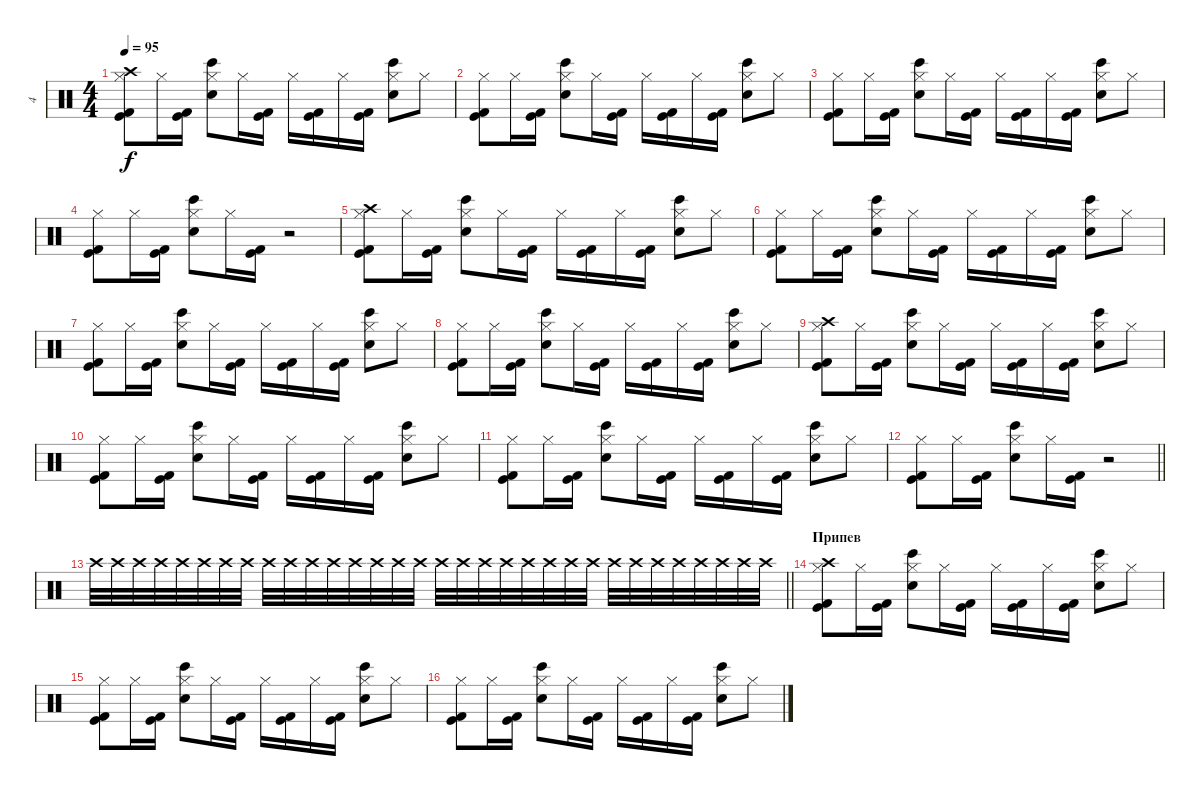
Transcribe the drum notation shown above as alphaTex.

\track ("4" "4") {instrument percussion}
\staff {score}
\articulation defaults
\ts (4 4)
\tempo 95
\clef neutral
\ks c
("Kick (hit) 2" "Kick (hit)" "Hi-Hat (closed)" "Crash high (hit)").8{dy f} "Hi-Hat (closed)".16 ("Kick (hit) 2" "Kick (hit)").16 ("Snare (hit) 2" "Hi-Hat (closed)" "Bongo High (hit)").8 "Hi-Hat (closed)".16 ("Kick (hit) 2" "Kick (hit)").16 "Hi-Hat (closed)".16 ("Kick (hit) 2" "Kick (hit)").16 "Hi-Hat (closed)".16 ("Kick (hit) 2" "Kick (hit)").16 ("Snare (hit) 2" "Hi-Hat (closed)" "Bongo High (hit)").8 "Hi-Hat (closed)".8 |
("Kick (hit) 2" "Kick (hit)" "Hi-Hat (closed)").8 "Hi-Hat (closed)".16 ("Kick (hit) 2" "Kick (hit)").16 ("Snare (hit) 2" "Hi-Hat (closed)" "Bongo High (hit)").8 "Hi-Hat (closed)".16 ("Kick (hit) 2" "Kick (hit)").16 "Hi-Hat (closed)".16 ("Kick (hit) 2" "Kick (hit)").16 "Hi-Hat (closed)".16 ("Kick (hit) 2" "Kick (hit)").16 ("Snare (hit) 2" "Hi-Hat (closed)" "Bongo High (hit)").8 "Hi-Hat (closed)".8 |
("Kick (hit) 2" "Kick (hit)" "Hi-Hat (closed)").8 "Hi-Hat (closed)".16 ("Kick (hit) 2" "Kick (hit)").16 ("Snare (hit) 2" "Hi-Hat (closed)" "Bongo High (hit)").8 "Hi-Hat (closed)".16 ("Kick (hit) 2" "Kick (hit)").16 "Hi-Hat (closed)".16 ("Kick (hit) 2" "Kick (hit)").16 "Hi-Hat (closed)".16 ("Kick (hit) 2" "Kick (hit)").16 ("Snare (hit) 2" "Hi-Hat (closed)" "Bongo High (hit)").8 "Hi-Hat (closed)".8 |
("Kick (hit) 2" "Kick (hit)" "Hi-Hat (closed)").8 "Hi-Hat (closed)".16 ("Kick (hit) 2" "Kick (hit)").16 ("Snare (hit) 2" "Hi-Hat (closed)" "Bongo High (hit)").8 "Hi-Hat (closed)".16 ("Kick (hit) 2" "Kick (hit)").16 r.2 |
("Kick (hit) 2" "Kick (hit)" "Hi-Hat (closed)" "Crash high (hit)").8 "Hi-Hat (closed)".16 ("Kick (hit) 2" "Kick (hit)").16 ("Snare (hit) 2" "Hi-Hat (closed)" "Bongo High (hit)").8 "Hi-Hat (closed)".16 ("Kick (hit) 2" "Kick (hit)").16 "Hi-Hat (closed)".16 ("Kick (hit) 2" "Kick (hit)").16 "Hi-Hat (closed)".16 ("Kick (hit) 2" "Kick (hit)").16 ("Snare (hit) 2" "Hi-Hat (closed)" "Bongo High (hit)").8 "Hi-Hat (closed)".8 |
("Kick (hit) 2" "Kick (hit)" "Hi-Hat (closed)").8 "Hi-Hat (closed)".16 ("Kick (hit) 2" "Kick (hit)").16 ("Snare (hit) 2" "Hi-Hat (closed)" "Bongo High (hit)").8 "Hi-Hat (closed)".16 ("Kick (hit) 2" "Kick (hit)").16 "Hi-Hat (closed)".16 ("Kick (hit) 2" "Kick (hit)").16 "Hi-Hat (closed)".16 ("Kick (hit) 2" "Kick (hit)").16 ("Snare (hit) 2" "Hi-Hat (closed)" "Bongo High (hit)").8 "Hi-Hat (closed)".8 |
("Kick (hit) 2" "Kick (hit)" "Hi-Hat (closed)").8 "Hi-Hat (closed)".16 ("Kick (hit) 2" "Kick (hit)").16 ("Snare (hit) 2" "Hi-Hat (closed)" "Bongo High (hit)").8 "Hi-Hat (closed)".16 ("Kick (hit) 2" "Kick (hit)").16 "Hi-Hat (closed)".16 ("Kick (hit) 2" "Kick (hit)").16 "Hi-Hat (closed)".16 ("Kick (hit) 2" "Kick (hit)").16 ("Snare (hit) 2" "Hi-Hat (closed)" "Bongo High (hit)").8 "Hi-Hat (closed)".8 |
("Kick (hit) 2" "Kick (hit)" "Hi-Hat (closed)").8 "Hi-Hat (closed)".16 ("Kick (hit) 2" "Kick (hit)").16 ("Snare (hit) 2" "Hi-Hat (closed)" "Bongo High (hit)").8 "Hi-Hat (closed)".16 ("Kick (hit) 2" "Kick (hit)").16 "Hi-Hat (closed)".16 ("Kick (hit) 2" "Kick (hit)").16 "Hi-Hat (closed)".16 ("Kick (hit) 2" "Kick (hit)").16 ("Snare (hit) 2" "Hi-Hat (closed)" "Bongo High (hit)").8 "Hi-Hat (closed)".8 |
("Kick (hit) 2" "Kick (hit)" "Hi-Hat (closed)" "Crash high (hit)").8 "Hi-Hat (closed)".16 ("Kick (hit) 2" "Kick (hit)").16 ("Snare (hit) 2" "Hi-Hat (closed)" "Bongo High (hit)").8 "Hi-Hat (closed)".16 ("Kick (hit) 2" "Kick (hit)").16 "Hi-Hat (closed)".16 ("Kick (hit) 2" "Kick (hit)").16 "Hi-Hat (closed)".16 ("Kick (hit) 2" "Kick (hit)").16 ("Snare (hit) 2" "Hi-Hat (closed)" "Bongo High (hit)").8 "Hi-Hat (closed)".8 |
("Kick (hit) 2" "Kick (hit)" "Hi-Hat (closed)").8 "Hi-Hat (closed)".16 ("Kick (hit) 2" "Kick (hit)").16 ("Snare (hit) 2" "Hi-Hat (closed)" "Bongo High (hit)").8 "Hi-Hat (closed)".16 ("Kick (hit) 2" "Kick (hit)").16 "Hi-Hat (closed)".16 ("Kick (hit) 2" "Kick (hit)").16 "Hi-Hat (closed)".16 ("Kick (hit) 2" "Kick (hit)").16 ("Snare (hit) 2" "Hi-Hat (closed)" "Bongo High (hit)").8 "Hi-Hat (closed)".8 |
("Kick (hit) 2" "Kick (hit)" "Hi-Hat (closed)").8 "Hi-Hat (closed)".16 ("Kick (hit) 2" "Kick (hit)").16 ("Snare (hit) 2" "Hi-Hat (closed)" "Bongo High (hit)").8 "Hi-Hat (closed)".16 ("Kick (hit) 2" "Kick (hit)").16 "Hi-Hat (closed)".16 ("Kick (hit) 2" "Kick (hit)").16 "Hi-Hat (closed)".16 ("Kick (hit) 2" "Kick (hit)").16 ("Snare (hit) 2" "Hi-Hat (closed)" "Bongo High (hit)").8 "Hi-Hat (closed)".8 |
\barLineRight lightlight
("Kick (hit) 2" "Kick (hit)" "Hi-Hat (closed)").8 "Hi-Hat (closed)".16 ("Kick (hit) 2" "Kick (hit)").16 ("Snare (hit) 2" "Hi-Hat (closed)" "Bongo High (hit)").8 "Hi-Hat (closed)".16 ("Kick (hit) 2" "Kick (hit)").16 r.2{volume 0} |
\barLineRight lightlight "Crash high (hit)".32{volume 14} "Crash high (hit)".32 "Crash high (hit)".32 "Crash high (hit)".32 "Crash high (hit)".32 "Crash high (hit)".32 "Crash high (hit)".32 "Crash high (hit)".32 "Crash high (hit)".32 "Crash high (hit)".32 "Crash high (hit)".32 "Crash high (hit)".32 "Crash high (hit)".32 "Crash high (hit)".32 "Crash high (hit)".32 "Crash high (hit)".32 "Crash high (hit)".32 "Crash high (hit)".32 "Crash high (hit)".32 "Crash high (hit)".32 "Crash high (hit)".32 "Crash high (hit)".32 "Crash high (hit)".32 "Crash high (hit)".32 "Crash high (hit)".32 "Crash high (hit)".32 "Crash high (hit)".32 "Crash high (hit)".32 "Crash high (hit)".32 "Crash high (hit)".32 "Crash high (hit)".32 "Crash high (hit)".32
|
\section ("" "Припев")
("Kick (hit) 2" "Kick (hit)" "Hi-Hat (closed)" "Crash high (hit)").8 "Hi-Hat (closed)".16 ("Kick (hit) 2" "Kick (hit)").16 ("Snare (hit) 2" "Hi-Hat (closed)" "Bongo High (hit)").8 "Hi-Hat (closed)".16 ("Kick (hit) 2" "Kick (hit)").16 "Hi-Hat (closed)".16 ("Kick (hit) 2" "Kick (hit)").16 "Hi-Hat (closed)".16 ("Kick (hit) 2" "Kick (hit)").16 ("Snare (hit) 2" "Hi-Hat (closed)" "Bongo High (hit)").8 "Hi-Hat (closed)".8 |
("Kick (hit) 2" "Kick (hit)" "Hi-Hat (closed)").8 "Hi-Hat (closed)".16 ("Kick (hit) 2" "Kick (hit)").16 ("Snare (hit) 2" "Hi-Hat (closed)" "Bongo High (hit)").8 "Hi-Hat (closed)".16 ("Kick (hit) 2" "Kick (hit)").16 "Hi-Hat (closed)".16 ("Kick (hit) 2" "Kick (hit)").16 "Hi-Hat (closed)".16 ("Kick (hit) 2" "Kick (hit)").16 ("Snare (hit) 2" "Hi-Hat (closed)" "Bongo High (hit)").8 "Hi-Hat (closed)".8 |
("Kick (hit) 2" "Kick (hit)" "Hi-Hat (closed)").8 "Hi-Hat (closed)".16 ("Kick (hit) 2" "Kick (hit)").16 ("Snare (hit) 2" "Hi-Hat (closed)" "Bongo High (hit)").8 "Hi-Hat (closed)".16 ("Kick (hit) 2" "Kick (hit)").16 "Hi-Hat (closed)".16 ("Kick (hit) 2" "Kick (hit)").16 "Hi-Hat (closed)".16 ("Kick (hit) 2" "Kick (hit)").16 ("Snare (hit) 2" "Hi-Hat (closed)" "Bongo High (hit)").8 "Hi-Hat (closed)".8
